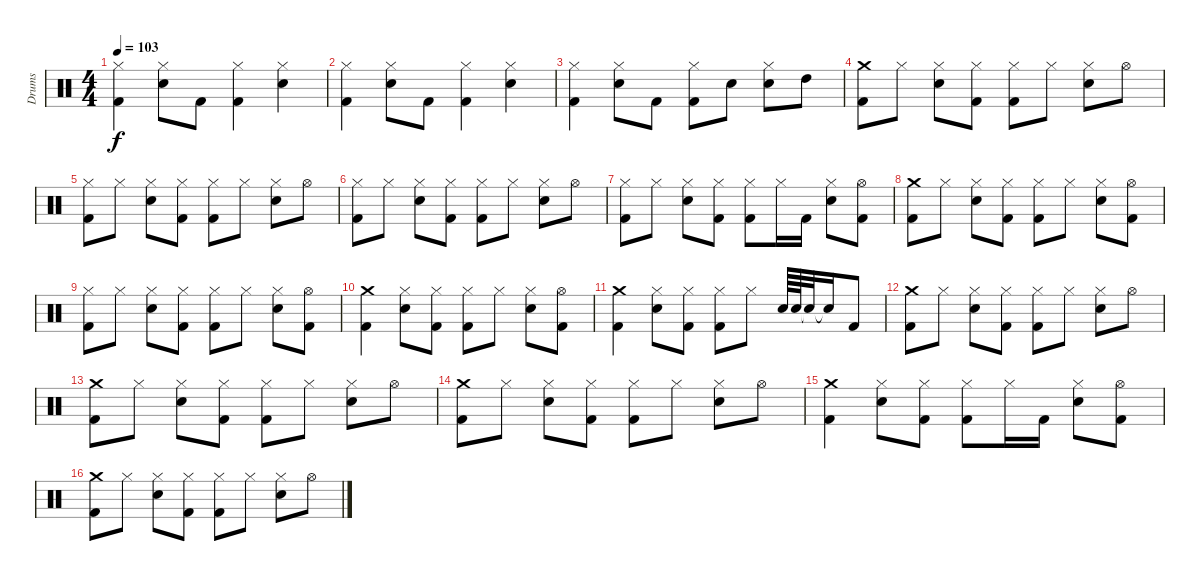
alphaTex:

\track ("Drums" "Drums") {instrument percussion}
\staff {score}
\articulation defaults
\ts (4 4)
\tempo 103
\clef neutral
\ks c
("Hi-Hat (closed)" "Kick (hit) 2").4{dy f} ("Hi-Hat (closed)" "Electric Snare (hit)").8 "Kick (hit) 2".8 ("Hi-Hat (closed)" "Kick (hit) 2").4 ("Hi-Hat (closed)" "Electric Snare (hit)").4 |
("Hi-Hat (closed)" "Kick (hit) 2").4 ("Hi-Hat (closed)" "Electric Snare (hit)").8 "Kick (hit) 2".8 ("Hi-Hat (closed)" "Kick (hit) 2").4 ("Hi-Hat (closed)" "Electric Snare (hit)").4 |
("Hi-Hat (closed)" "Kick (hit) 2").4 ("Hi-Hat (closed)" "Electric Snare (hit)").8 "Kick (hit) 2".8 ("Hi-Hat (closed)" "Kick (hit) 2").8 "Electric Snare (hit)".8 ("Hi-Hat (closed)" "Electric Snare (hit)").8 "High Tom (hit)".8 |
("Crash medium (hit)" "Kick (hit) 2").8 "Hi-Hat (closed)".8 ("Hi-Hat (closed)" "Electric Snare (hit)").8 ("Hi-Hat (closed)" "Kick (hit) 2").8 ("Hi-Hat (closed)" "Kick (hit) 2").8 "Hi-Hat (closed)".8 ("Hi-Hat (closed)" "Electric Snare (hit)").8 "Hi-Hat (open)".8 |
("Hi-Hat (closed)" "Kick (hit) 2").8 "Hi-Hat (closed)".8 ("Hi-Hat (closed)" "Electric Snare (hit)").8 ("Hi-Hat (closed)" "Kick (hit) 2").8 ("Hi-Hat (closed)" "Kick (hit) 2").8 "Hi-Hat (closed)".8 ("Hi-Hat (closed)" "Electric Snare (hit)").8 "Hi-Hat (open)".8 |
("Hi-Hat (closed)" "Kick (hit) 2").8 "Hi-Hat (closed)".8 ("Hi-Hat (closed)" "Electric Snare (hit)").8 ("Hi-Hat (closed)" "Kick (hit) 2").8 ("Hi-Hat (closed)" "Kick (hit) 2").8 "Hi-Hat (closed)".8 ("Hi-Hat (closed)" "Electric Snare (hit)").8 "Hi-Hat (open)".8 |
("Hi-Hat (closed)" "Kick (hit) 2").8 "Hi-Hat (closed)".8 ("Hi-Hat (closed)" "Electric Snare (hit)").8 ("Hi-Hat (closed)" "Kick (hit) 2").8 ("Hi-Hat (closed)" "Kick (hit) 2").8 "Hi-Hat (closed)".16 "Kick (hit) 2".16 ("Hi-Hat (closed)" "Electric Snare (hit)").8 ("Hi-Hat (open)" "Kick (hit) 2").8 |
("Crash medium (hit)" "Kick (hit) 2").8 "Hi-Hat (closed)".8 ("Hi-Hat (closed)" "Electric Snare (hit)").8 ("Hi-Hat (closed)" "Kick (hit) 2").8 ("Hi-Hat (closed)" "Kick (hit) 2").8 "Hi-Hat (closed)".8 ("Hi-Hat (closed)" "Electric Snare (hit)").8 ("Hi-Hat (open)" "Kick (hit) 2").8 |
("Hi-Hat (closed)" "Kick (hit) 2").8 "Hi-Hat (closed)".8 ("Hi-Hat (closed)" "Electric Snare (hit)").8 ("Hi-Hat (closed)" "Kick (hit) 2").8 ("Hi-Hat (closed)" "Kick (hit) 2").8 "Hi-Hat (closed)".8 ("Hi-Hat (closed)" "Electric Snare (hit)").8 ("Hi-Hat (open)" "Kick (hit) 2").8 |
("Crash medium (hit)" "Kick (hit) 2").4 ("Hi-Hat (closed)" "Electric Snare (hit)").8 ("Hi-Hat (closed)" "Kick (hit) 2").8 ("Hi-Hat (closed)" "Kick (hit) 2").8 "Hi-Hat (closed)".8 ("Hi-Hat (closed)" "Electric Snare (hit)").8 ("Hi-Hat (open)" "Kick (hit) 2").8 |
("Crash medium (hit)" "Kick (hit) 2").4 ("Hi-Hat (closed)" "Electric Snare (hit)").8 ("Hi-Hat (closed)" "Kick (hit) 2").8 ("Hi-Hat (closed)" "Kick (hit) 2").8 "Hi-Hat (closed)".8 "Electric Snare (hit)".64 "Electric Snare (hit)".64 "Snare (hit)"{t}.32 "Snare (hit)"{t}.16 "Kick (hit) 2".8 |
("Crash medium (hit)" "Kick (hit) 2").8 "Hi-Hat (closed)".8 ("Hi-Hat (closed)" "Electric Snare (hit)").8 ("Hi-Hat (closed)" "Kick (hit) 2").8 ("Hi-Hat (closed)" "Kick (hit) 2").8 "Hi-Hat (closed)".8 ("Hi-Hat (closed)" "Electric Snare (hit)").8 "Hi-Hat (open)".8 |
("Crash medium (hit)" "Kick (hit) 2").8 "Hi-Hat (closed)".8 ("Hi-Hat (closed)" "Electric Snare (hit)").8 ("Hi-Hat (closed)" "Kick (hit) 2").8 ("Hi-Hat (closed)" "Kick (hit) 2").8 "Hi-Hat (closed)".8 ("Hi-Hat (closed)" "Electric Snare (hit)").8 "Hi-Hat (open)".8 |
("Crash medium (hit)" "Kick (hit) 2").8 "Hi-Hat (closed)".8 ("Hi-Hat (closed)" "Electric Snare (hit)").8 ("Hi-Hat (closed)" "Kick (hit) 2").8 ("Hi-Hat (closed)" "Kick (hit) 2").8 "Hi-Hat (closed)".8 ("Hi-Hat (closed)" "Electric Snare (hit)").8 "Hi-Hat (open)".8 |
("Crash medium (hit)" "Kick (hit) 2").4 ("Hi-Hat (closed)" "Electric Snare (hit)").8 ("Hi-Hat (closed)" "Kick (hit) 2").8 ("Hi-Hat (closed)" "Kick (hit) 2").8 "Hi-Hat (closed)".16 "Kick (hit) 2".16 ("Hi-Hat (closed)" "Electric Snare (hit)").8 ("Hi-Hat (open)" "Kick (hit) 2").8 |
("Crash medium (hit)" "Kick (hit) 2").8 "Hi-Hat (closed)".8 ("Hi-Hat (closed)" "Electric Snare (hit)").8 ("Hi-Hat (closed)" "Kick (hit) 2").8 ("Hi-Hat (closed)" "Kick (hit) 2").8 "Hi-Hat (closed)".8 ("Hi-Hat (closed)" "Electric Snare (hit)").8 "Hi-Hat (open)".8
